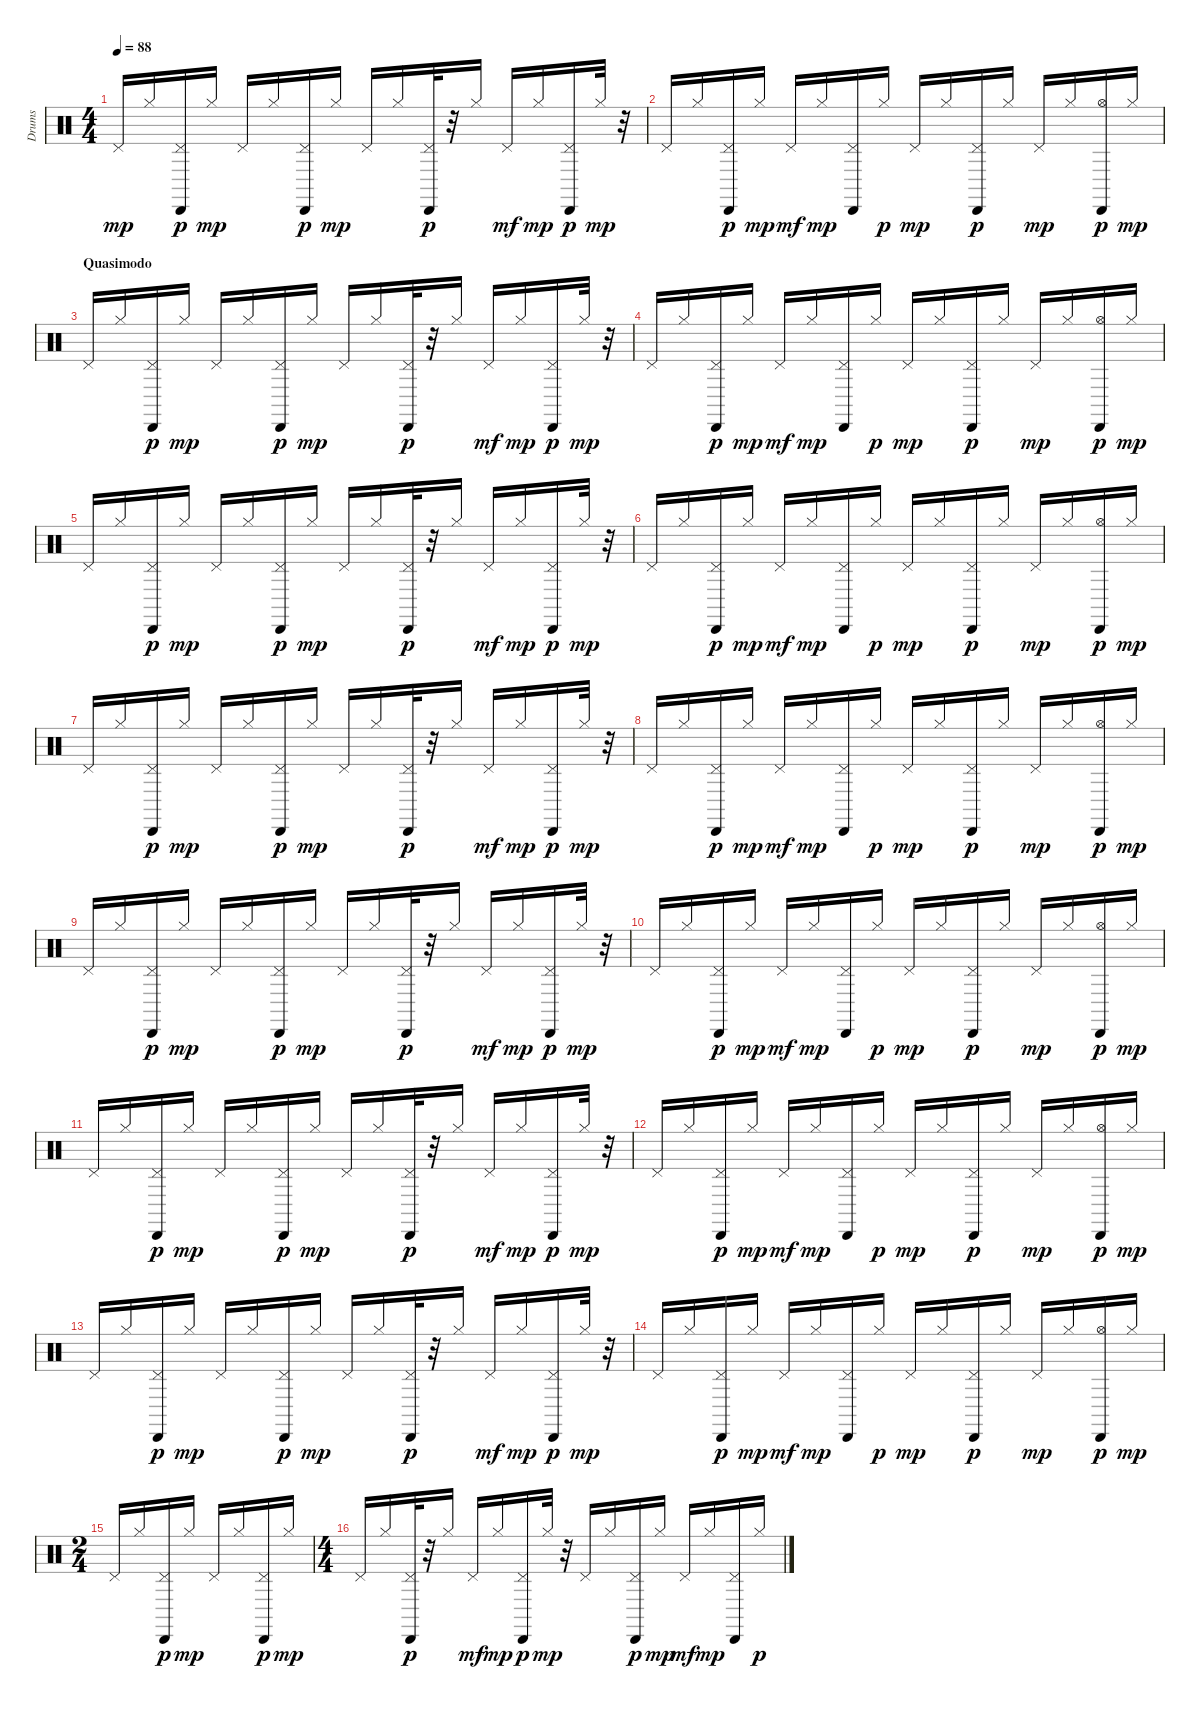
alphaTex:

\track ("Drums" "Drums") {instrument percussion}
\staff {score}
\articulation defaults
\ts (4 4)
\tempo 88
\clef neutral
\ks c "Pedal Hi-Hat (hit)".16{dy mp} "Hi-Hat (closed)".16
("Pedal Hi-Hat (hit)" "Cabasa (hit)").16{dy p} "Hi-Hat (closed)".16{dy mp} "Pedal Hi-Hat (hit)".16 "Hi-Hat (closed)".16 ("Pedal Hi-Hat (hit)" "Cabasa (hit)").16{dy p} "Hi-Hat (closed)".16{dy mp} "Pedal Hi-Hat (hit)".16 "Hi-Hat (closed)".16 ("Pedal Hi-Hat (hit)" "Cabasa (hit)").32{dy p} r.32 "Hi-Hat (closed)".16 "Pedal Hi-Hat (hit)".16{dy mf} "Hi-Hat (closed)".16{dy mp} ("Pedal Hi-Hat (hit)" "Cabasa (hit)").16{dy p} "Hi-Hat (closed)".32{dy mp} r.32 |
"Pedal Hi-Hat (hit)".16 "Hi-Hat (closed)".16 ("Pedal Hi-Hat (hit)" "Cabasa (hit)").16{dy p} "Hi-Hat (closed)".16{dy mp} "Pedal Hi-Hat (hit)".16{dy mf} "Hi-Hat (closed)".16{dy mp} ("Pedal Hi-Hat (hit)" "Cabasa (hit)").16 "Hi-Hat (closed)".16{dy p} "Pedal Hi-Hat (hit)".16{dy mp} "Hi-Hat (closed)".16 ("Pedal Hi-Hat (hit)" "Cabasa (hit)").16{dy p} "Hi-Hat (closed)".16 "Pedal Hi-Hat (hit)".16{dy mp} "Hi-Hat (closed)".16 ("Hi-Hat (open)" "Cabasa (hit)").16{dy p} "Hi-Hat (closed)".16{dy mp} |
\section ("" "Quasimodo")
"Pedal Hi-Hat (hit)".16 "Hi-Hat (closed)".16 ("Pedal Hi-Hat (hit)" "Cabasa (hit)").16{dy p} "Hi-Hat (closed)".16{dy mp} "Pedal Hi-Hat (hit)".16 "Hi-Hat (closed)".16 ("Pedal Hi-Hat (hit)" "Cabasa (hit)").16{dy p} "Hi-Hat (closed)".16{dy mp} "Pedal Hi-Hat (hit)".16 "Hi-Hat (closed)".16 ("Pedal Hi-Hat (hit)" "Cabasa (hit)").32{dy p} r.32 "Hi-Hat (closed)".16 "Pedal Hi-Hat (hit)".16{dy mf} "Hi-Hat (closed)".16{dy mp} ("Pedal Hi-Hat (hit)" "Cabasa (hit)").16{dy p} "Hi-Hat (closed)".32{dy mp} r.32 |
"Pedal Hi-Hat (hit)".16 "Hi-Hat (closed)".16 ("Pedal Hi-Hat (hit)" "Cabasa (hit)").16{dy p} "Hi-Hat (closed)".16{dy mp} "Pedal Hi-Hat (hit)".16{dy mf} "Hi-Hat (closed)".16{dy mp} ("Pedal Hi-Hat (hit)" "Cabasa (hit)").16 "Hi-Hat (closed)".16{dy p} "Pedal Hi-Hat (hit)".16{dy mp} "Hi-Hat (closed)".16 ("Pedal Hi-Hat (hit)" "Cabasa (hit)").16{dy p} "Hi-Hat (closed)".16 "Pedal Hi-Hat (hit)".16{dy mp} "Hi-Hat (closed)".16 ("Hi-Hat (open)" "Cabasa (hit)").16{dy p} "Hi-Hat (closed)".16{dy mp} |
"Pedal Hi-Hat (hit)".16 "Hi-Hat (closed)".16 ("Pedal Hi-Hat (hit)" "Cabasa (hit)").16{dy p} "Hi-Hat (closed)".16{dy mp} "Pedal Hi-Hat (hit)".16 "Hi-Hat (closed)".16 ("Pedal Hi-Hat (hit)" "Cabasa (hit)").16{dy p} "Hi-Hat (closed)".16{dy mp} "Pedal Hi-Hat (hit)".16 "Hi-Hat (closed)".16 ("Pedal Hi-Hat (hit)" "Cabasa (hit)").32{dy p} r.32 "Hi-Hat (closed)".16 "Pedal Hi-Hat (hit)".16{dy mf} "Hi-Hat (closed)".16{dy mp} ("Pedal Hi-Hat (hit)" "Cabasa (hit)").16{dy p} "Hi-Hat (closed)".32{dy mp} r.32 |
"Pedal Hi-Hat (hit)".16 "Hi-Hat (closed)".16 ("Pedal Hi-Hat (hit)" "Cabasa (hit)").16{dy p} "Hi-Hat (closed)".16{dy mp} "Pedal Hi-Hat (hit)".16{dy mf} "Hi-Hat (closed)".16{dy mp} ("Pedal Hi-Hat (hit)" "Cabasa (hit)").16 "Hi-Hat (closed)".16{dy p} "Pedal Hi-Hat (hit)".16{dy mp} "Hi-Hat (closed)".16 ("Pedal Hi-Hat (hit)" "Cabasa (hit)").16{dy p} "Hi-Hat (closed)".16 "Pedal Hi-Hat (hit)".16{dy mp} "Hi-Hat (closed)".16 ("Hi-Hat (open)" "Cabasa (hit)").16{dy p} "Hi-Hat (closed)".16{dy mp} |
"Pedal Hi-Hat (hit)".16 "Hi-Hat (closed)".16 ("Pedal Hi-Hat (hit)" "Cabasa (hit)").16{dy p} "Hi-Hat (closed)".16{dy mp} "Pedal Hi-Hat (hit)".16 "Hi-Hat (closed)".16 ("Pedal Hi-Hat (hit)" "Cabasa (hit)").16{dy p} "Hi-Hat (closed)".16{dy mp} "Pedal Hi-Hat (hit)".16 "Hi-Hat (closed)".16 ("Pedal Hi-Hat (hit)" "Cabasa (hit)").32{dy p} r.32 "Hi-Hat (closed)".16 "Pedal Hi-Hat (hit)".16{dy mf} "Hi-Hat (closed)".16{dy mp} ("Pedal Hi-Hat (hit)" "Cabasa (hit)").16{dy p} "Hi-Hat (closed)".32{dy mp} r.32 |
"Pedal Hi-Hat (hit)".16 "Hi-Hat (closed)".16 ("Pedal Hi-Hat (hit)" "Cabasa (hit)").16{dy p} "Hi-Hat (closed)".16{dy mp} "Pedal Hi-Hat (hit)".16{dy mf} "Hi-Hat (closed)".16{dy mp} ("Pedal Hi-Hat (hit)" "Cabasa (hit)").16 "Hi-Hat (closed)".16{dy p} "Pedal Hi-Hat (hit)".16{dy mp} "Hi-Hat (closed)".16 ("Pedal Hi-Hat (hit)" "Cabasa (hit)").16{dy p} "Hi-Hat (closed)".16 "Pedal Hi-Hat (hit)".16{dy mp} "Hi-Hat (closed)".16 ("Hi-Hat (open)" "Cabasa (hit)").16{dy p} "Hi-Hat (closed)".16{dy mp} |
"Pedal Hi-Hat (hit)".16 "Hi-Hat (closed)".16 ("Pedal Hi-Hat (hit)" "Cabasa (hit)").16{dy p} "Hi-Hat (closed)".16{dy mp} "Pedal Hi-Hat (hit)".16 "Hi-Hat (closed)".16 ("Pedal Hi-Hat (hit)" "Cabasa (hit)").16{dy p} "Hi-Hat (closed)".16{dy mp} "Pedal Hi-Hat (hit)".16 "Hi-Hat (closed)".16 ("Pedal Hi-Hat (hit)" "Cabasa (hit)").32{dy p} r.32 "Hi-Hat (closed)".16 "Pedal Hi-Hat (hit)".16{dy mf} "Hi-Hat (closed)".16{dy mp} ("Pedal Hi-Hat (hit)" "Cabasa (hit)").16{dy p} "Hi-Hat (closed)".32{dy mp} r.32 |
"Pedal Hi-Hat (hit)".16 "Hi-Hat (closed)".16 ("Pedal Hi-Hat (hit)" "Cabasa (hit)").16{dy p} "Hi-Hat (closed)".16{dy mp} "Pedal Hi-Hat (hit)".16{dy mf} "Hi-Hat (closed)".16{dy mp} ("Pedal Hi-Hat (hit)" "Cabasa (hit)").16 "Hi-Hat (closed)".16{dy p} "Pedal Hi-Hat (hit)".16{dy mp} "Hi-Hat (closed)".16 ("Pedal Hi-Hat (hit)" "Cabasa (hit)").16{dy p} "Hi-Hat (closed)".16 "Pedal Hi-Hat (hit)".16{dy mp} "Hi-Hat (closed)".16 ("Hi-Hat (open)" "Cabasa (hit)").16{dy p} "Hi-Hat (closed)".16{dy mp} |
"Pedal Hi-Hat (hit)".16 "Hi-Hat (closed)".16 ("Pedal Hi-Hat (hit)" "Cabasa (hit)").16{dy p} "Hi-Hat (closed)".16{dy mp} "Pedal Hi-Hat (hit)".16 "Hi-Hat (closed)".16 ("Pedal Hi-Hat (hit)" "Cabasa (hit)").16{dy p} "Hi-Hat (closed)".16{dy mp} "Pedal Hi-Hat (hit)".16 "Hi-Hat (closed)".16 ("Pedal Hi-Hat (hit)" "Cabasa (hit)").32{dy p} r.32 "Hi-Hat (closed)".16 "Pedal Hi-Hat (hit)".16{dy mf} "Hi-Hat (closed)".16{dy mp} ("Pedal Hi-Hat (hit)" "Cabasa (hit)").16{dy p} "Hi-Hat (closed)".32{dy mp} r.32 |
"Pedal Hi-Hat (hit)".16 "Hi-Hat (closed)".16 ("Pedal Hi-Hat (hit)" "Cabasa (hit)").16{dy p} "Hi-Hat (closed)".16{dy mp} "Pedal Hi-Hat (hit)".16{dy mf} "Hi-Hat (closed)".16{dy mp} ("Pedal Hi-Hat (hit)" "Cabasa (hit)").16 "Hi-Hat (closed)".16{dy p} "Pedal Hi-Hat (hit)".16{dy mp} "Hi-Hat (closed)".16 ("Pedal Hi-Hat (hit)" "Cabasa (hit)").16{dy p} "Hi-Hat (closed)".16 "Pedal Hi-Hat (hit)".16{dy mp} "Hi-Hat (closed)".16 ("Hi-Hat (open)" "Cabasa (hit)").16{dy p} "Hi-Hat (closed)".16{dy mp} |
"Pedal Hi-Hat (hit)".16 "Hi-Hat (closed)".16 ("Pedal Hi-Hat (hit)" "Cabasa (hit)").16{dy p} "Hi-Hat (closed)".16{dy mp} "Pedal Hi-Hat (hit)".16 "Hi-Hat (closed)".16 ("Pedal Hi-Hat (hit)" "Cabasa (hit)").16{dy p} "Hi-Hat (closed)".16{dy mp} "Pedal Hi-Hat (hit)".16 "Hi-Hat (closed)".16 ("Pedal Hi-Hat (hit)" "Cabasa (hit)").32{dy p} r.32 "Hi-Hat (closed)".16 "Pedal Hi-Hat (hit)".16{dy mf} "Hi-Hat (closed)".16{dy mp} ("Pedal Hi-Hat (hit)" "Cabasa (hit)").16{dy p} "Hi-Hat (closed)".32{dy mp} r.32 |
"Pedal Hi-Hat (hit)".16 "Hi-Hat (closed)".16 ("Pedal Hi-Hat (hit)" "Cabasa (hit)").16{dy p} "Hi-Hat (closed)".16{dy mp} "Pedal Hi-Hat (hit)".16{dy mf} "Hi-Hat (closed)".16{dy mp} ("Pedal Hi-Hat (hit)" "Cabasa (hit)").16 "Hi-Hat (closed)".16{dy p} "Pedal Hi-Hat (hit)".16{dy mp} "Hi-Hat (closed)".16 ("Pedal Hi-Hat (hit)" "Cabasa (hit)").16{dy p} "Hi-Hat (closed)".16 "Pedal Hi-Hat (hit)".16{dy mp} "Hi-Hat (closed)".16 ("Hi-Hat (open)" "Cabasa (hit)").16{dy p} "Hi-Hat (closed)".16{dy mp} |
\ts (2 4)
"Pedal Hi-Hat (hit)".16 "Hi-Hat (closed)".16 ("Pedal Hi-Hat (hit)" "Cabasa (hit)").16{dy p} "Hi-Hat (closed)".16{dy mp} "Pedal Hi-Hat (hit)".16 "Hi-Hat (closed)".16 ("Pedal Hi-Hat (hit)" "Cabasa (hit)").16{dy p} "Hi-Hat (closed)".16{dy mp} |
\ts (4 4)
"Pedal Hi-Hat (hit)".16 "Hi-Hat (closed)".16 ("Pedal Hi-Hat (hit)" "Cabasa (hit)").32{dy p} r.32 "Hi-Hat (closed)".16 "Pedal Hi-Hat (hit)".16{dy mf} "Hi-Hat (closed)".16{dy mp} ("Pedal Hi-Hat (hit)" "Cabasa (hit)").16{dy p} "Hi-Hat (closed)".32{dy mp} r.32 "Pedal Hi-Hat (hit)".16 "Hi-Hat (closed)".16 ("Pedal Hi-Hat (hit)" "Cabasa (hit)").16{dy p} "Hi-Hat (closed)".16{dy mp} "Pedal Hi-Hat (hit)".16{dy mf} "Hi-Hat (closed)".16{dy mp} ("Pedal Hi-Hat (hit)" "Cabasa (hit)").16 "Hi-Hat (closed)".16{dy p}
